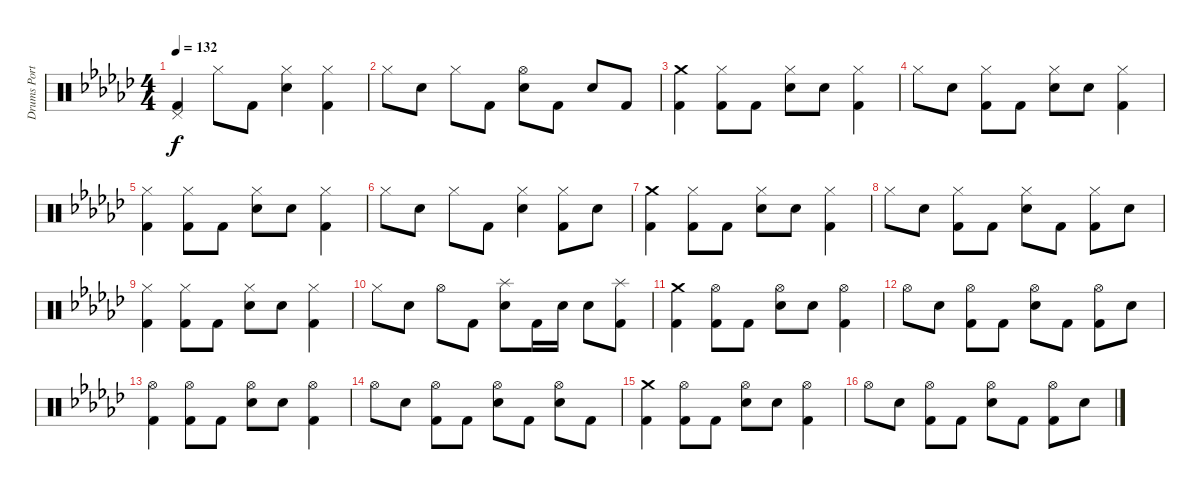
\track ("Drums Portnoy" "Drums Port") {instrument percussion}
\staff {score}
\articulation defaults
\ts (4 4)
\tempo 132
\clef neutral
\ks gb
("Pedal Hi-Hat (hit)" "Kick (hit) 2").4{dy f} "Hi-Hat (closed)".8 "Kick (hit) 2".8 ("Hi-Hat (closed)" "Snare (hit) 2").4 ("Hi-Hat (closed)" "Kick (hit) 2").4 |
"Hi-Hat (closed)".8 "Snare (hit) 2".8 "Hi-Hat (closed)".8 "Kick (hit) 2".8 ("Hi-Hat (open)" "Snare (hit) 2").8 "Kick (hit) 2".8 "Snare (hit) 2".8 "Kick (hit) 2".8 |
("Crash medium (hit)" "Kick (hit) 2").4 ("Hi-Hat (closed)" "Kick (hit) 2").8 "Kick (hit) 2".8 ("Hi-Hat (closed)" "Snare (hit) 2").8 "Snare (hit) 2".8 ("Hi-Hat (closed)" "Kick (hit) 2").4 |
"Hi-Hat (closed)".8 "Snare (hit) 2".8 ("Hi-Hat (closed)" "Kick (hit) 2").8 "Kick (hit) 2".8 ("Hi-Hat (closed)" "Snare (hit) 2").8 "Snare (hit) 2".8 ("Hi-Hat (closed)" "Kick (hit) 2").4 |
("Hi-Hat (closed)" "Kick (hit) 2").4 ("Hi-Hat (closed)" "Kick (hit) 2").8 "Kick (hit) 2".8 ("Hi-Hat (closed)" "Snare (hit) 2").8 "Snare (hit) 2".8 ("Hi-Hat (closed)" "Kick (hit) 2").4 |
"Hi-Hat (closed)".8 "Snare (hit) 2".8 "Hi-Hat (closed)".8 "Kick (hit) 2".8 ("Hi-Hat (closed)" "Snare (hit) 2").4 ("Hi-Hat (closed)" "Kick (hit) 2").8 "Snare (hit) 2".8 |
("Crash medium (hit)" "Kick (hit) 2").4 ("Hi-Hat (closed)" "Kick (hit) 2").8 "Kick (hit) 2".8 ("Hi-Hat (closed)" "Snare (hit) 2").8 "Snare (hit) 2".8 ("Hi-Hat (closed)" "Kick (hit) 2").4 |
"Hi-Hat (closed)".8 "Snare (hit) 2".8 ("Hi-Hat (closed)" "Kick (hit) 2").8 "Kick (hit) 2".8 ("Hi-Hat (closed)" "Snare (hit) 2").8 "Kick (hit) 2".8 ("Hi-Hat (closed)" "Kick (hit) 2").8 "Snare (hit) 2".8 |
("Hi-Hat (closed)" "Kick (hit) 2").4 ("Hi-Hat (closed)" "Kick (hit) 2").8 "Kick (hit) 2".8 ("Hi-Hat (closed)" "Snare (hit) 2").8 "Snare (hit) 2".8 ("Hi-Hat (closed)" "Kick (hit) 2").4 |
"Hi-Hat (closed)".8 "Snare (hit) 2".8 "Hi-Hat (open)".8 "Kick (hit) 2".8 ("Splash (hit)" "Snare (hit) 2").8 "Kick (hit) 2".16 "Snare (hit) 2".16 "Snare (hit) 2".8 ("Splash (hit)" "Kick (hit) 2").8 |
("Crash medium (hit)" "Kick (hit) 2").4 ("Hi-Hat (open)" "Kick (hit) 2").8 "Kick (hit) 2".8 ("Hi-Hat (open)" "Snare (hit) 2").8 "Snare (hit) 2".8 ("Hi-Hat (open)" "Kick (hit) 2").4 |
"Hi-Hat (open)".8 "Snare (hit) 2".8 ("Hi-Hat (open)" "Kick (hit) 2").8 "Kick (hit) 2".8 ("Hi-Hat (open)" "Snare (hit) 2").8 "Kick (hit) 2".8 ("Hi-Hat (open)" "Kick (hit) 2").8 "Snare (hit) 2".8 |
("Hi-Hat (open)" "Kick (hit) 2").4 ("Hi-Hat (open)" "Kick (hit) 2").8 "Kick (hit) 2".8 ("Hi-Hat (open)" "Snare (hit) 2").8 "Snare (hit) 2".8 ("Hi-Hat (open)" "Kick (hit) 2").4 |
"Hi-Hat (open)".8 "Snare (hit) 2".8 ("Hi-Hat (open)" "Kick (hit) 2").8 "Kick (hit) 2".8 ("Hi-Hat (open)" "Snare (hit) 2").8 "Kick (hit) 2".8 ("Hi-Hat (open)" "Snare (hit) 2").8 "Kick (hit) 2".8 |
("Crash medium (hit)" "Kick (hit) 2").4 ("Hi-Hat (open)" "Kick (hit) 2").8 "Kick (hit) 2".8 ("Hi-Hat (open)" "Snare (hit) 2").8 "Snare (hit) 2".8 ("Hi-Hat (open)" "Kick (hit) 2").4 |
"Hi-Hat (open)".8 "Snare (hit) 2".8 ("Hi-Hat (open)" "Kick (hit) 2").8 "Kick (hit) 2".8 ("Hi-Hat (open)" "Snare (hit) 2").8 "Kick (hit) 2".8 ("Hi-Hat (open)" "Kick (hit) 2").8 "Snare (hit) 2".8
